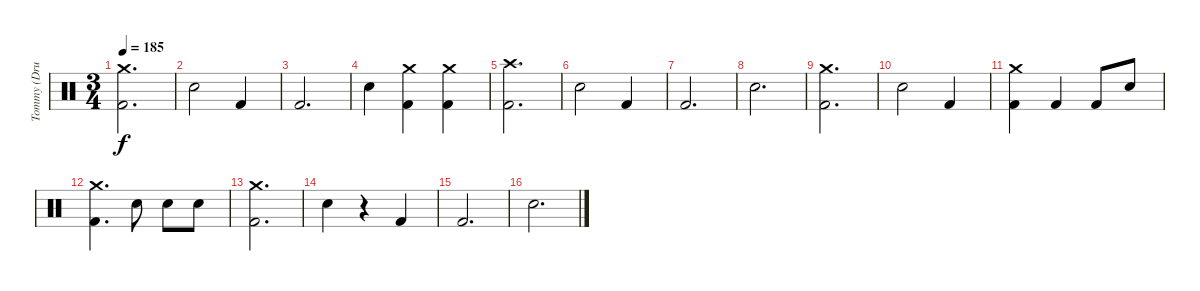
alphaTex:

\track ("Tommy (Drums)" "Tommy (Dru") {instrument percussion}
\staff {score}
\articulation defaults
\ts (3 4)
\tempo 185
\clef neutral
\ks c
("Crash medium (hit)" "Kick (hit) 2").2{d dy f} |
"Electric Snare (hit)".2 "Kick (hit) 2".4 |
"Kick (hit) 2".2{d} |
"Electric Snare (hit)".4 ("Crash medium (hit)" "Kick (hit) 2").4 ("Crash medium (hit)" "Kick (hit) 2").4 |
("Crash high (hit)" "Kick (hit) 2").2{d} |
"Electric Snare (hit)".2 "Kick (hit) 2".4 |
"Kick (hit) 2".2{d} |
"Electric Snare (hit)".2{d} |
("Crash medium (hit)" "Kick (hit) 2").2{d} |
"Electric Snare (hit)".2 "Kick (hit) 2".4 |
("Crash medium (hit)" "Kick (hit) 2").4 "Kick (hit) 2".4 "Kick (hit) 2".8 "Electric Snare (hit)".8 |
("Crash medium (hit)" "Kick (hit) 2").4{d} "Electric Snare (hit)".8 "Electric Snare (hit)".8 "Electric Snare (hit)".8 |
("Crash medium (hit)" "Kick (hit) 2").2{d} |
"Electric Snare (hit)".4 r.4 "Kick (hit) 2".4 |
"Kick (hit) 2".2{d} |
"Electric Snare (hit)".2{d}
